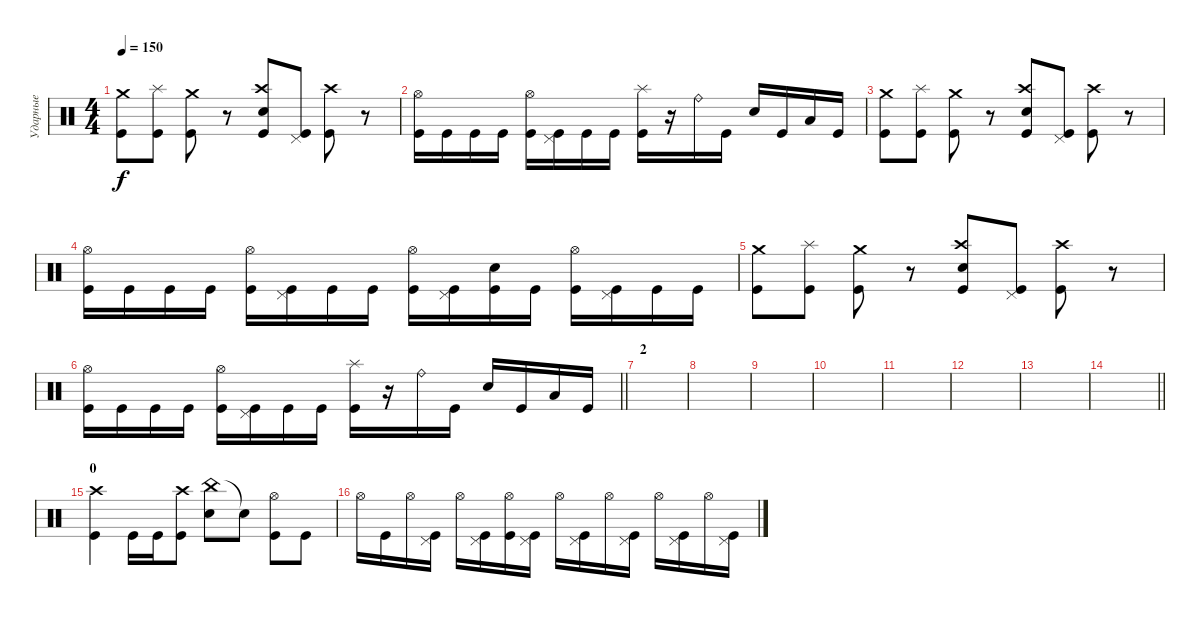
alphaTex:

\track ("Ударные" "Ударные") {instrument percussion}
\staff {score}
\articulation defaults
\ts (4 4)
\tempo 150
\clef neutral
\ks c
("Crash medium (hit)" "Kick (hit)").8{dy f} ("Splash (hit)" "Kick (hit)").8 ("Crash medium (hit)" "Kick (hit)").8 r.8 ("Crash high (hit)" "Electric Snare (hit)" "Kick (hit)").8 ("Pedal Hi-Hat (hit)" "Kick (hit)").8 ("Crash high (hit)" "Kick (hit)").8 r.8 |
("Hi-Hat (open)" "Kick (hit)").16 "Kick (hit)".16 "Kick (hit)".16 "Kick (hit)".16 ("Hi-Hat (open)" "Kick (hit)").16 ("Pedal Hi-Hat (hit)" "Kick (hit)").16 "Kick (hit)".16 "Kick (hit)".16 ("Splash (hit)" "Kick (hit)").16 r.16 "Ride (bell)".16 "Kick (hit)".16 "Electric Snare (hit)".16 "Kick (hit)".16 "Low Tom (hit)".16 "Kick (hit)".16 |
("Crash medium (hit)" "Kick (hit)").8 ("Splash (hit)" "Kick (hit)").8 ("Crash medium (hit)" "Kick (hit)").8 r.8 ("Crash high (hit)" "Electric Snare (hit)" "Kick (hit)").8 ("Pedal Hi-Hat (hit)" "Kick (hit)").8 ("Crash high (hit)" "Kick (hit)").8 r.8 |
("Hi-Hat (open)" "Kick (hit)").16 "Kick (hit)".16 "Kick (hit)".16 "Kick (hit)".16 ("Hi-Hat (open)" "Kick (hit)").16 ("Pedal Hi-Hat (hit)" "Kick (hit)").16 "Kick (hit)".16 "Kick (hit)".16 ("Hi-Hat (open)" "Kick (hit)").16 ("Pedal Hi-Hat (hit)" "Kick (hit)").16 ("Electric Snare (hit)" "Kick (hit)").16 "Kick (hit)".16 ("Hi-Hat (open)" "Kick (hit)").16 ("Pedal Hi-Hat (hit)" "Kick (hit)").16 "Kick (hit)".16 "Kick (hit)".16 |
("Crash medium (hit)" "Kick (hit)").8 ("Splash (hit)" "Kick (hit)").8 ("Crash medium (hit)" "Kick (hit)").8 r.8 ("Crash high (hit)" "Electric Snare (hit)" "Kick (hit)").8 ("Pedal Hi-Hat (hit)" "Kick (hit)").8 ("Crash high (hit)" "Kick (hit)").8 r.8 |
\barLineRight lightlight
("Hi-Hat (open)" "Kick (hit)").16 "Kick (hit)".16 "Kick (hit)".16 "Kick (hit)".16 ("Hi-Hat (open)" "Kick (hit)").16 ("Pedal Hi-Hat (hit)" "Kick (hit)").16 "Kick (hit)".16 "Kick (hit)".16 ("Splash (hit)" "Kick (hit)").16 r.16 "Ride (bell)".16 "Kick (hit)".16 "Electric Snare (hit)".16 "Kick (hit)".16 "Low Tom (hit)".16 "Kick (hit)".16 |
\section ("" "2")
|
|
|
|
|
|
|
\barLineRight lightlight
|
\section ("" "0")
("Crash high (hit)" "Kick (hit)").4 "Kick (hit)".16 "Kick (hit)".16 ("Crash high (hit)" "Kick (hit)").8 ("China (hit)" "Electric Snare (hit)").8 "Snare (hit)"{t}.8 ("Hi-Hat (open)" "Kick (hit)").8 "Kick (hit)".8 |
"Hi-Hat (open)".16 "Kick (hit)".16 "Hi-Hat (open)".16 ("Pedal Hi-Hat (hit)" "Kick (hit)").16 "Hi-Hat (open)".16 ("Pedal Hi-Hat (hit)" "Kick (hit)").16 ("Hi-Hat (open)" "Kick (hit)").16 ("Pedal Hi-Hat (hit)" "Kick (hit)").16 "Hi-Hat (open)".16 ("Pedal Hi-Hat (hit)" "Kick (hit)").16 "Hi-Hat (open)".16 ("Pedal Hi-Hat (hit)" "Kick (hit)").16 "Hi-Hat (open)".16 ("Pedal Hi-Hat (hit)" "Kick (hit)").16 "Hi-Hat (open)".16 ("Pedal Hi-Hat (hit)" "Kick (hit)").16
